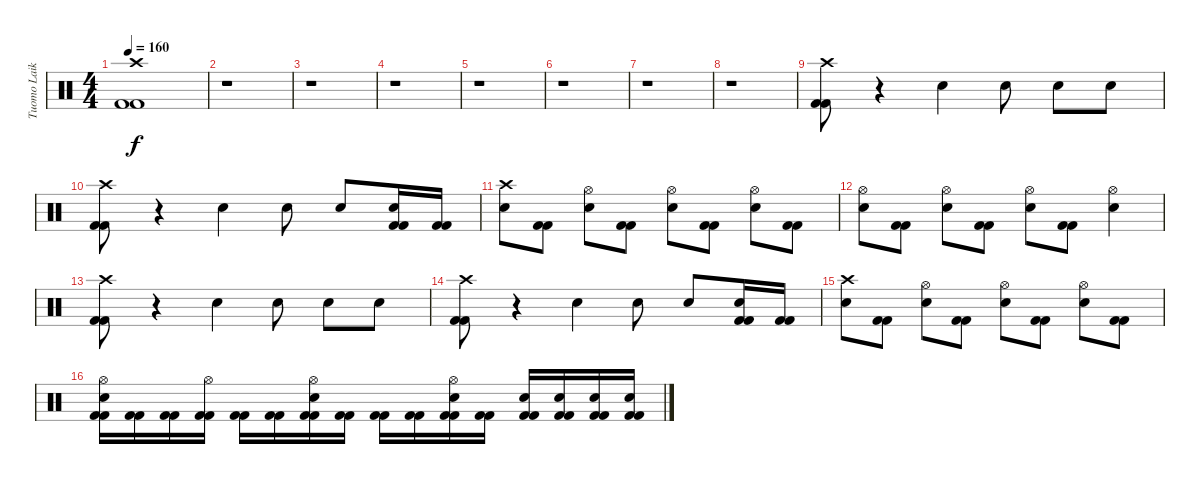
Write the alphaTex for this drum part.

\track ("Tuomo Laikari" "Tuomo Laik") {instrument percussion}
\staff {score}
\articulation defaults
\ts (4 4)
\tempo 160
\clef neutral
\ks c
("Crash high (hit)" "Kick (hit) 2" "Kick (hit) 2").1{dy f} |
r.1 |
r.1 |
r.1 |
r.1 |
r.1 |
r.1 |
r.1 |
("Crash high (hit)" "Kick (hit) 2" "Kick (hit) 2").8 r.4 "Electric Snare (hit)".4 "Electric Snare (hit)".8 "Electric Snare (hit)".8 "Electric Snare (hit)".8 |
("Crash high (hit)" "Kick (hit) 2" "Kick (hit) 2").8 r.4 "Electric Snare (hit)".4 "Electric Snare (hit)".8 "Electric Snare (hit)".8 ("Electric Snare (hit)" "Kick (hit) 2" "Kick (hit) 2").16 ("Kick (hit) 2" "Kick (hit) 2").16 |
("Crash high (hit)" "Electric Snare (hit)").8 ("Kick (hit) 2" "Kick (hit) 2").8 ("Hi-Hat (open)" "Electric Snare (hit)").8 ("Kick (hit) 2" "Kick (hit) 2").8 ("Hi-Hat (open)" "Electric Snare (hit)").8 ("Kick (hit) 2" "Kick (hit) 2").8 ("Hi-Hat (open)" "Electric Snare (hit)").8 ("Kick (hit) 2" "Kick (hit) 2").8 |
("Hi-Hat (open)" "Electric Snare (hit)").8 ("Kick (hit) 2" "Kick (hit) 2").8 ("Hi-Hat (open)" "Electric Snare (hit)").8 ("Kick (hit) 2" "Kick (hit) 2").8 ("Hi-Hat (open)" "Electric Snare (hit)").8 ("Kick (hit) 2" "Kick (hit) 2").8 ("Hi-Hat (open)" "Electric Snare (hit)").4 |
("Crash high (hit)" "Kick (hit) 2" "Kick (hit) 2").8 r.4 "Electric Snare (hit)".4 "Electric Snare (hit)".8 "Electric Snare (hit)".8 "Electric Snare (hit)".8 |
("Crash high (hit)" "Kick (hit) 2" "Kick (hit) 2").8 r.4 "Electric Snare (hit)".4 "Electric Snare (hit)".8 "Electric Snare (hit)".8 ("Electric Snare (hit)" "Kick (hit) 2" "Kick (hit) 2").16 ("Kick (hit) 2" "Kick (hit) 2").16 |
("Crash high (hit)" "Electric Snare (hit)").8 ("Kick (hit) 2" "Kick (hit) 2").8 ("Hi-Hat (open)" "Electric Snare (hit)").8 ("Kick (hit) 2" "Kick (hit) 2").8 ("Hi-Hat (open)" "Electric Snare (hit)").8 ("Kick (hit) 2" "Kick (hit) 2").8 ("Hi-Hat (open)" "Electric Snare (hit)").8 ("Kick (hit) 2" "Kick (hit) 2").8 |
("Hi-Hat (open)" "Electric Snare (hit)" "Kick (hit) 2" "Kick (hit) 2").16 ("Kick (hit) 2" "Kick (hit) 2").16 ("Kick (hit) 2" "Kick (hit) 2").16 ("Hi-Hat (open)" "Kick (hit) 2" "Kick (hit) 2").16 ("Kick (hit) 2" "Kick (hit) 2").16 ("Kick (hit) 2" "Kick (hit) 2").16 ("Hi-Hat (open)" "Electric Snare (hit)" "Kick (hit) 2" "Kick (hit) 2").16 ("Kick (hit) 2" "Kick (hit) 2").16 ("Kick (hit) 2" "Kick (hit) 2").16 ("Kick (hit) 2" "Kick (hit) 2").16 ("Hi-Hat (open)" "Electric Snare (hit)" "Kick (hit) 2" "Kick (hit) 2").16 ("Kick (hit) 2" "Kick (hit) 2").16 ("Electric Snare (hit)" "Kick (hit) 2" "Kick (hit) 2").16 ("Electric Snare (hit)" "Kick (hit) 2" "Kick (hit) 2").16 ("Electric Snare (hit)" "Kick (hit) 2" "Kick (hit) 2").16 ("Electric Snare (hit)" "Kick (hit) 2" "Kick (hit) 2").16
